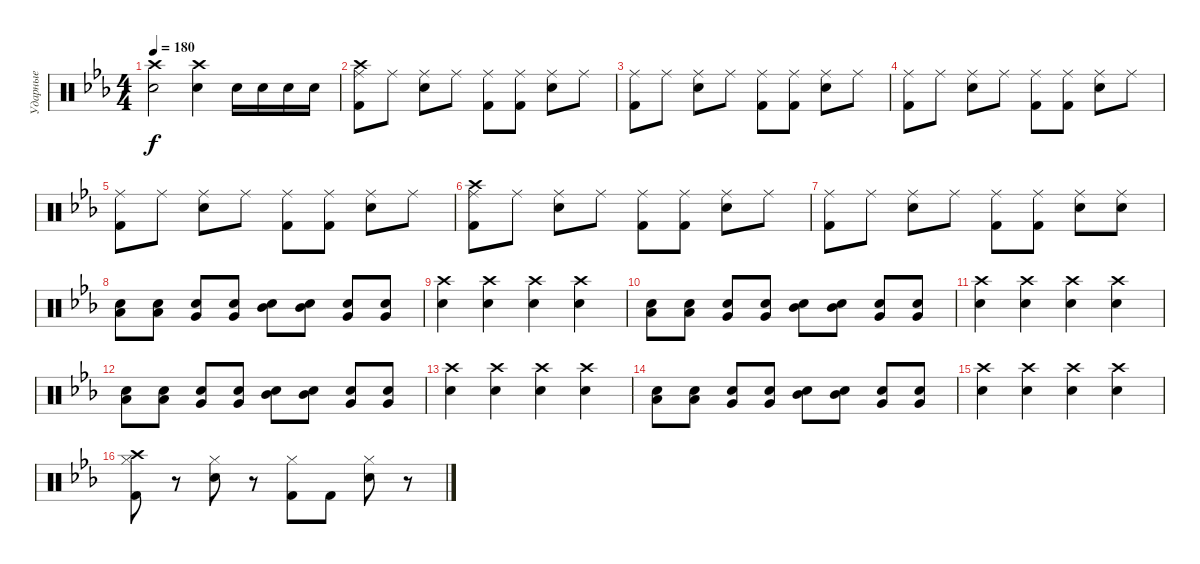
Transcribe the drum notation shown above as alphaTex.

\track ("Ударные" "Ударные") {instrument percussion}
\staff {score}
\articulation defaults
\ts (4 4)
\tempo 180
\clef neutral
\ks eb
("Crash high (hit)" "Electric Snare (hit)").2{dy f} ("Crash high (hit)" "Electric Snare (hit)").4 "Electric Snare (hit)".16 "Electric Snare (hit)".16 "Electric Snare (hit)".16 "Electric Snare (hit)".16 |
("Ride (middle)" "Kick (hit) 2" "Crash high (hit)").8 "Ride (middle)".8 ("Ride (middle)" "Electric Snare (hit)").8 "Ride (middle)".8 ("Ride (middle)" "Kick (hit) 2").8 ("Ride (middle)" "Kick (hit) 2").8 ("Ride (middle)" "Electric Snare (hit)").8 "Ride (middle)".8 |
("Ride (middle)" "Kick (hit) 2").8 "Ride (middle)".8 ("Ride (middle)" "Electric Snare (hit)").8 "Ride (middle)".8 ("Ride (middle)" "Kick (hit) 2").8 ("Ride (middle)" "Kick (hit) 2").8 ("Ride (middle)" "Electric Snare (hit)").8 "Ride (middle)".8 |
("Ride (middle)" "Kick (hit) 2").8 "Ride (middle)".8 ("Ride (middle)" "Electric Snare (hit)").8 "Ride (middle)".8 ("Ride (middle)" "Kick (hit) 2").8 ("Ride (middle)" "Kick (hit) 2").8 ("Ride (middle)" "Electric Snare (hit)").8 "Ride (middle)".8 |
("Ride (middle)" "Kick (hit) 2").8 "Ride (middle)".8 ("Ride (middle)" "Electric Snare (hit)").8 "Ride (middle)".8 ("Ride (middle)" "Kick (hit) 2").8 ("Ride (middle)" "Kick (hit) 2").8 ("Ride (middle)" "Electric Snare (hit)").8 "Ride (middle)".8 |
("Ride (middle)" "Kick (hit) 2" "Crash high (hit)").8 "Ride (middle)".8 ("Ride (middle)" "Electric Snare (hit)").8 "Ride (middle)".8 ("Ride (middle)" "Kick (hit) 2").8 ("Ride (middle)" "Kick (hit) 2").8 ("Ride (middle)" "Electric Snare (hit)").8 "Ride (middle)".8 |
("Ride (middle)" "Kick (hit) 2").8 "Ride (middle)".8 ("Ride (middle)" "Electric Snare (hit)").8 "Ride (middle)".8 ("Ride (middle)" "Kick (hit) 2").8 ("Ride (middle)" "Kick (hit) 2").8 ("Ride (middle)" "Electric Snare (hit)").8 ("Ride (middle)" "Electric Snare (hit)").8 |
("Electric Snare (hit)" "Low Tom (hit)").8 ("Electric Snare (hit)" "Low Tom (hit)").8 ("Electric Snare (hit)" "Very Low Tom (hit)").8 ("Electric Snare (hit)" "Very Low Tom (hit)").8 ("Electric Snare (hit)" "Mid Tom (hit)").8 ("Electric Snare (hit)" "Mid Tom (hit)").8 ("Electric Snare (hit)" "Very Low Tom (hit)").8 ("Electric Snare (hit)" "Very Low Tom (hit)").8 |
("Crash high (hit)" "Electric Snare (hit)").4 ("Crash high (hit)" "Electric Snare (hit)").4 ("Crash high (hit)" "Electric Snare (hit)").4 ("Crash high (hit)" "Electric Snare (hit)").4 |
("Electric Snare (hit)" "Low Tom (hit)").8 ("Electric Snare (hit)" "Low Tom (hit)").8 ("Electric Snare (hit)" "Very Low Tom (hit)").8 ("Electric Snare (hit)" "Very Low Tom (hit)").8 ("Electric Snare (hit)" "Mid Tom (hit)").8 ("Electric Snare (hit)" "Mid Tom (hit)").8 ("Electric Snare (hit)" "Very Low Tom (hit)").8 ("Electric Snare (hit)" "Very Low Tom (hit)").8 |
("Crash high (hit)" "Electric Snare (hit)").4 ("Crash high (hit)" "Electric Snare (hit)").4 ("Crash high (hit)" "Electric Snare (hit)").4 ("Crash high (hit)" "Electric Snare (hit)").4 |
("Electric Snare (hit)" "Low Tom (hit)").8 ("Electric Snare (hit)" "Low Tom (hit)").8 ("Electric Snare (hit)" "Very Low Tom (hit)").8 ("Electric Snare (hit)" "Very Low Tom (hit)").8 ("Electric Snare (hit)" "Mid Tom (hit)").8 ("Electric Snare (hit)" "Mid Tom (hit)").8 ("Electric Snare (hit)" "Very Low Tom (hit)").8 ("Electric Snare (hit)" "Very Low Tom (hit)").8 |
("Crash high (hit)" "Electric Snare (hit)").4 ("Crash high (hit)" "Electric Snare (hit)").4 ("Crash high (hit)" "Electric Snare (hit)").4 ("Crash high (hit)" "Electric Snare (hit)").4 |
("Electric Snare (hit)" "Low Tom (hit)").8 ("Electric Snare (hit)" "Low Tom (hit)").8 ("Electric Snare (hit)" "Very Low Tom (hit)").8 ("Electric Snare (hit)" "Very Low Tom (hit)").8 ("Electric Snare (hit)" "Mid Tom (hit)").8 ("Electric Snare (hit)" "Mid Tom (hit)").8 ("Electric Snare (hit)" "Very Low Tom (hit)").8 ("Electric Snare (hit)" "Very Low Tom (hit)").8 |
("Crash high (hit)" "Electric Snare (hit)").4 ("Crash high (hit)" "Electric Snare (hit)").4 ("Crash high (hit)" "Electric Snare (hit)").4 ("Crash high (hit)" "Electric Snare (hit)").4 |
("Hi-Hat (closed)" "Kick (hit) 2" "Crash high (hit)").8 r.8 ("Hi-Hat (closed)" "Electric Snare (hit)").8 r.8 ("Hi-Hat (closed)" "Kick (hit) 2").8 "Kick (hit) 2".8 ("Hi-Hat (closed)" "Electric Snare (hit)").8 r.8
